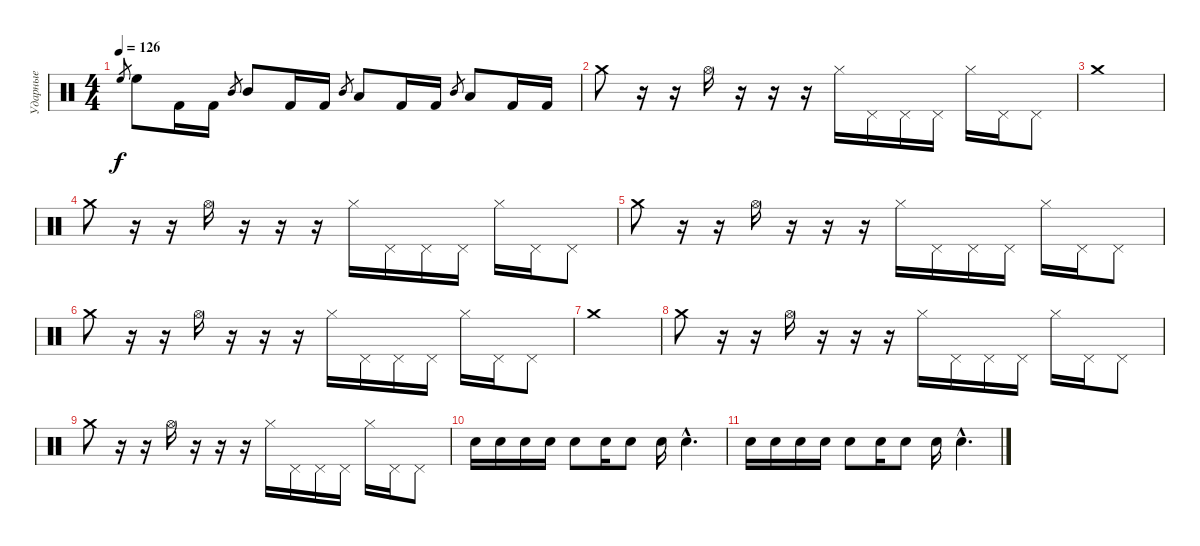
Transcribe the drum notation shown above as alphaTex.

\track ("Ударные" "Ударные") {instrument percussion}
\staff {score}
\articulation defaults
\ts (4 4)
\tempo 126
\clef neutral
\ks c "High Floor Tom (hit)".8{gr dy f} "High Floor Tom (hit)".8 "Kick (hit) 2".16 "Kick (hit) 2".16 "Mid Tom (hit)".8{gr} "Mid Tom (hit)".8 "Kick (hit) 2".16 "Kick (hit) 2".16 "Mid Tom (hit)".8{gr} "Low Tom (hit)".8 "Kick (hit) 2".16 "Kick (hit) 2".16 "Mid Tom (hit)".8{gr} "Low Floor Tom (hit)".8 "Kick (hit) 2".16 "Kick (hit) 2".16
|
"Crash medium (hit)".8 r.16 r.16 "Hi-Hat (open)".16 r.16 r.16 r.16 "Hi-Hat (closed)".16 "Pedal Hi-Hat (hit)".16 "Pedal Hi-Hat (hit)".16 "Pedal Hi-Hat (hit)".16 "Hi-Hat (closed)".16 "Pedal Hi-Hat (hit)".16 "Pedal Hi-Hat (hit)".8 |
"Crash medium (hit)".1 |
"Crash medium (hit)".8 r.16 r.16 "Hi-Hat (open)".16 r.16 r.16 r.16 "Hi-Hat (closed)".16 "Pedal Hi-Hat (hit)".16 "Pedal Hi-Hat (hit)".16 "Pedal Hi-Hat (hit)".16 "Hi-Hat (closed)".16 "Pedal Hi-Hat (hit)".16 "Pedal Hi-Hat (hit)".8 |
"Crash medium (hit)".8 r.16 r.16 "Hi-Hat (open)".16 r.16 r.16 r.16 "Hi-Hat (closed)".16 "Pedal Hi-Hat (hit)".16 "Pedal Hi-Hat (hit)".16 "Pedal Hi-Hat (hit)".16 "Hi-Hat (closed)".16 "Pedal Hi-Hat (hit)".16 "Pedal Hi-Hat (hit)".8 |
"Crash medium (hit)".8 r.16 r.16 "Hi-Hat (open)".16 r.16 r.16 r.16 "Hi-Hat (closed)".16 "Pedal Hi-Hat (hit)".16 "Pedal Hi-Hat (hit)".16 "Pedal Hi-Hat (hit)".16 "Hi-Hat (closed)".16 "Pedal Hi-Hat (hit)".16 "Pedal Hi-Hat (hit)".8 |
"Crash medium (hit)".1 |
"Crash medium (hit)".8 r.16 r.16 "Hi-Hat (open)".16 r.16 r.16 r.16 "Hi-Hat (closed)".16 "Pedal Hi-Hat (hit)".16 "Pedal Hi-Hat (hit)".16 "Pedal Hi-Hat (hit)".16 "Hi-Hat (closed)".16 "Pedal Hi-Hat (hit)".16 "Pedal Hi-Hat (hit)".8 |
"Crash medium (hit)".8 r.16 r.16 "Hi-Hat (open)".16 r.16 r.16 r.16 "Hi-Hat (closed)".16 "Pedal Hi-Hat (hit)".16 "Pedal Hi-Hat (hit)".16 "Pedal Hi-Hat (hit)".16 "Hi-Hat (closed)".16 "Pedal Hi-Hat (hit)".16 "Pedal Hi-Hat (hit)".8 |
"Snare (hit) 2".16 "Snare (hit) 2".16 "Snare (hit) 2".16 "Snare (hit) 2".16 "Snare (hit) 2".8 "Snare (hit) 2".16 "Snare (hit) 2".8 "Snare (hit) 2".16 "Snare (hit) 2"{hac}.4{d} |
"Snare (hit) 2".16 "Snare (hit) 2".16 "Snare (hit) 2".16 "Snare (hit) 2".16 "Snare (hit) 2".8 "Snare (hit) 2".16 "Snare (hit) 2".8 "Snare (hit) 2".16 "Snare (hit) 2"{hac}.4{d}
